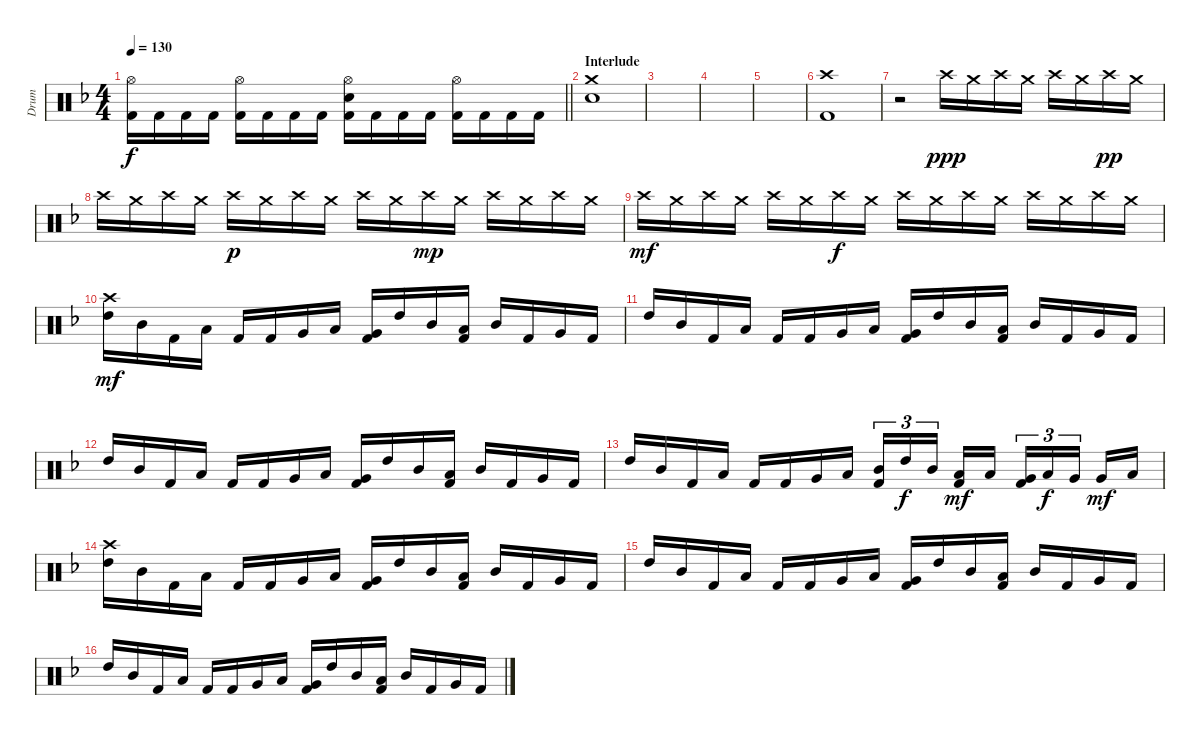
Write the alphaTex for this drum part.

\track ("Drum" "Drum") {instrument percussion}
\staff {score}
\articulation defaults
\ts (4 4)
\tempo 130
\clef neutral
\barLineRight lightlight
\ks f
("Hi-Hat (open)" "Kick (hit) 2").16{dy f} "Kick (hit) 2".16 "Kick (hit) 2".16 "Kick (hit) 2".16 ("Hi-Hat (open)" "Kick (hit) 2").16 "Kick (hit) 2".16 "Kick (hit) 2".16 "Kick (hit) 2".16 ("Hi-Hat (open)" "Electric Snare (hit)" "Kick (hit) 2").16 "Kick (hit) 2".16 "Kick (hit) 2".16 "Kick (hit) 2".16 ("Hi-Hat (open)" "Kick (hit) 2").16 "Kick (hit) 2".16 "Kick (hit) 2".16 "Kick (hit) 2".16 |
\section ("" "Interlude")
("Crash medium (hit)" "Electric Snare (hit)").1 |
|
|
|
("Crash high (hit)" "Kick (hit) 2").1 |
r.2 "Crash high (hit)".16{dy ppp} "Crash medium (hit)".16 "Crash high (hit)".16 "Crash medium (hit)".16 "Crash high (hit)".16 "Crash medium (hit)".16 "Crash high (hit)".16{dy pp} "Crash medium (hit)".16 |
"Crash high (hit)".16 "Crash medium (hit)".16 "Crash high (hit)".16 "Crash medium (hit)".16 "Crash high (hit)".16{dy p} "Crash medium (hit)".16 "Crash high (hit)".16 "Crash medium (hit)".16 "Crash high (hit)".16 "Crash medium (hit)".16 "Crash high (hit)".16{dy mp} "Crash medium (hit)".16 "Crash high (hit)".16 "Crash medium (hit)".16 "Crash high (hit)".16 "Crash medium (hit)".16 |
"Crash high (hit)".16{dy mf} "Crash medium (hit)".16 "Crash high (hit)".16 "Crash medium (hit)".16 "Crash high (hit)".16 "Crash medium (hit)".16 "Crash high (hit)".16{dy f} "Crash medium (hit)".16 "Crash high (hit)".16 "Crash medium (hit)".16 "Crash high (hit)".16 "Crash medium (hit)".16 "Crash high (hit)".16 "Crash medium (hit)".16 "Crash high (hit)".16 "Crash medium (hit)".16 |
("Crash high (hit)" "High Tom (hit)").16{dy mf} "Mid Tom (hit)".16 "Kick (hit) 2".16 "Low Tom (hit)".16 "Kick (hit) 2".16 "Kick (hit) 2".16 "Very Low Tom (hit)".16 "Low Floor Tom (hit)".16 ("Very Low Tom (hit)" "Kick (hit) 2").16 "High Tom (hit)".16 "Mid Tom (hit)".16 ("Low Tom (hit)" "Kick (hit) 2").16 "Mid Tom (hit)".16 "Kick (hit) 2".16 "Very Low Tom (hit)".16 "Kick (hit) 2".16 |
"High Tom (hit)".16 "Mid Tom (hit)".16 "Kick (hit) 2".16 "Low Tom (hit)".16 "Kick (hit) 2".16 "Kick (hit) 2".16 "Very Low Tom (hit)".16 "Low Floor Tom (hit)".16 ("Very Low Tom (hit)" "Kick (hit) 2").16 "High Tom (hit)".16 "Mid Tom (hit)".16 ("Low Tom (hit)" "Kick (hit) 2").16 "Mid Tom (hit)".16 "Kick (hit) 2".16 "Very Low Tom (hit)".16 "Kick (hit) 2".16 |
"High Tom (hit)".16 "Mid Tom (hit)".16 "Kick (hit) 2".16 "Low Tom (hit)".16 "Kick (hit) 2".16 "Kick (hit) 2".16 "Very Low Tom (hit)".16 "Low Floor Tom (hit)".16 ("Very Low Tom (hit)" "Kick (hit) 2").16 "High Tom (hit)".16 "Mid Tom (hit)".16 ("Low Tom (hit)" "Kick (hit) 2").16 "Mid Tom (hit)".16 "Kick (hit) 2".16 "Very Low Tom (hit)".16 "Kick (hit) 2".16 |
"High Tom (hit)".16 "Mid Tom (hit)".16 "Kick (hit) 2".16 "Low Tom (hit)".16 "Kick (hit) 2".16 "Kick (hit) 2".16 "Very Low Tom (hit)".16 "Low Floor Tom (hit)".16 ("Mid Tom (hit)" "Kick (hit) 2").16{tu (3 2)} "High Tom (hit)".16{tu (3 2) dy f} "Mid Tom (hit)".16{tu (3 2) beam splitsecondary} ("Low Tom (hit)" "Kick (hit) 2").16{dy mf} "Low Tom (hit)".16 ("Very Low Tom (hit)" "Kick (hit) 2").16{tu (3 2)} "Low Tom (hit)".16{tu (3 2) dy f} "Very Low Tom (hit)".16{tu (3 2) beam splitsecondary} "Very Low Tom (hit)".16{dy mf} "Low Floor Tom (hit)".16 |
("Crash high (hit)" "High Tom (hit)").16 "Mid Tom (hit)".16 "Kick (hit) 2".16 "Low Tom (hit)".16 "Kick (hit) 2".16 "Kick (hit) 2".16 "Very Low Tom (hit)".16 "Low Floor Tom (hit)".16 ("Very Low Tom (hit)" "Kick (hit) 2").16 "High Tom (hit)".16 "Mid Tom (hit)".16 ("Low Tom (hit)" "Kick (hit) 2").16 "Mid Tom (hit)".16 "Kick (hit) 2".16 "Very Low Tom (hit)".16 "Kick (hit) 2".16 |
"High Tom (hit)".16 "Mid Tom (hit)".16 "Kick (hit) 2".16 "Low Tom (hit)".16 "Kick (hit) 2".16 "Kick (hit) 2".16 "Very Low Tom (hit)".16 "Low Floor Tom (hit)".16 ("Very Low Tom (hit)" "Kick (hit) 2").16 "High Tom (hit)".16 "Mid Tom (hit)".16 ("Low Tom (hit)" "Kick (hit) 2").16 "Mid Tom (hit)".16 "Kick (hit) 2".16 "Very Low Tom (hit)".16 "Kick (hit) 2".16 |
"High Tom (hit)".16 "Mid Tom (hit)".16 "Kick (hit) 2".16 "Low Tom (hit)".16 "Kick (hit) 2".16 "Kick (hit) 2".16 "Very Low Tom (hit)".16 "Low Floor Tom (hit)".16 ("Very Low Tom (hit)" "Kick (hit) 2").16 "High Tom (hit)".16 "Mid Tom (hit)".16 ("Low Tom (hit)" "Kick (hit) 2").16 "Mid Tom (hit)".16 "Kick (hit) 2".16 "Very Low Tom (hit)".16 "Kick (hit) 2".16
